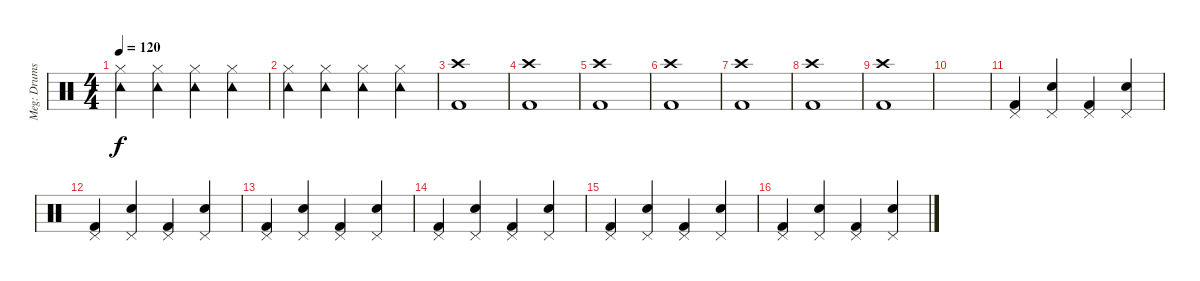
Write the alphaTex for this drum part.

\track ("Meg: Drums" "Meg: Drums") {instrument percussion}
\staff {score}
\articulation defaults
\ts (4 4)
\tempo 120
\clef neutral
\ks c
("Tambourine (hit)" "Hi-Hat (closed)").4{dy f} ("Tambourine (hit)" "Hi-Hat (closed)").4 ("Tambourine (hit)" "Hi-Hat (closed)").4 ("Tambourine (hit)" "Hi-Hat (closed)").4 |
("Tambourine (hit)" "Hi-Hat (closed)").4 ("Tambourine (hit)" "Hi-Hat (closed)").4 ("Tambourine (hit)" "Hi-Hat (closed)").4 ("Tambourine (hit)" "Hi-Hat (closed)").4 |
("Kick (hit) 2" "Crash high (hit)").1 |
("Kick (hit) 2" "Crash high (hit)").1 |
("Kick (hit) 2" "Crash high (hit)").1 |
("Kick (hit) 2" "Crash high (hit)").1 |
("Kick (hit) 2" "Crash high (hit)").1 |
("Kick (hit) 2" "Crash high (hit)").1 |
("Kick (hit) 2" "Crash high (hit)").1 |
|
("Kick (hit) 2" "Pedal Hi-Hat (hit)").4 ("Snare (hit) 2" "Pedal Hi-Hat (hit)").4 ("Kick (hit) 2" "Pedal Hi-Hat (hit)").4 ("Snare (hit) 2" "Pedal Hi-Hat (hit)").4 |
("Kick (hit) 2" "Pedal Hi-Hat (hit)").4 ("Snare (hit) 2" "Pedal Hi-Hat (hit)").4 ("Kick (hit) 2" "Pedal Hi-Hat (hit)").4 ("Snare (hit) 2" "Pedal Hi-Hat (hit)").4 |
("Kick (hit) 2" "Pedal Hi-Hat (hit)").4 ("Snare (hit) 2" "Pedal Hi-Hat (hit)").4 ("Kick (hit) 2" "Pedal Hi-Hat (hit)").4 ("Snare (hit) 2" "Pedal Hi-Hat (hit)").4 |
("Kick (hit) 2" "Pedal Hi-Hat (hit)").4 ("Snare (hit) 2" "Pedal Hi-Hat (hit)").4 ("Kick (hit) 2" "Pedal Hi-Hat (hit)").4 ("Snare (hit) 2" "Pedal Hi-Hat (hit)").4 |
("Kick (hit) 2" "Pedal Hi-Hat (hit)").4 ("Snare (hit) 2" "Pedal Hi-Hat (hit)").4 ("Kick (hit) 2" "Pedal Hi-Hat (hit)").4 ("Snare (hit) 2" "Pedal Hi-Hat (hit)").4 |
("Kick (hit) 2" "Pedal Hi-Hat (hit)").4 ("Snare (hit) 2" "Pedal Hi-Hat (hit)").4 ("Kick (hit) 2" "Pedal Hi-Hat (hit)").4 ("Snare (hit) 2" "Pedal Hi-Hat (hit)").4
